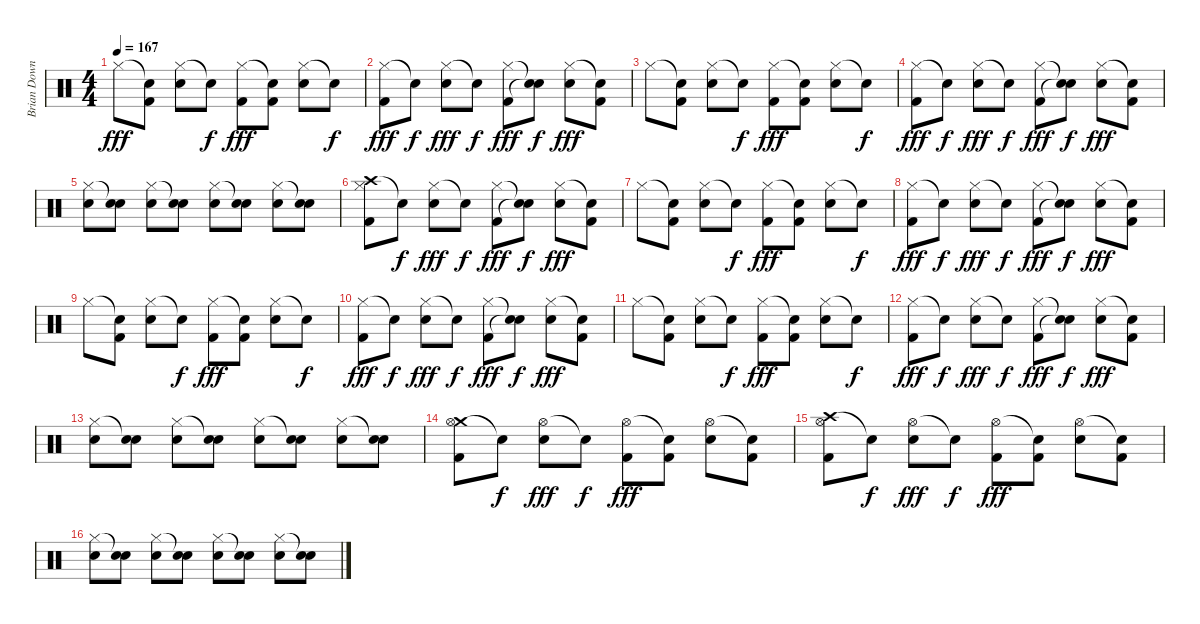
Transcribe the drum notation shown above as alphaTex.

\track ("Brian Downey" "Brian Down") {instrument percussion}
\staff {score}
\articulation defaults
\ts (4 4)
\tempo 167
\clef neutral
\ks c "Hi-Hat (closed)".8{dy fff}
("Snare (hit)"{t} "Kick (hit) 2").8 ("Hi-Hat (closed)" "Electric Snare (hit)").8 "Snare (hit)"{t}.8{dy f} ("Hi-Hat (closed)" "Kick (hit) 2").8{dy fff} ("Snare (hit)"{t} "Kick (hit) 2").8 ("Hi-Hat (closed)" "Electric Snare (hit)").8 "Snare (hit)"{t}.8{dy f} |
("Hi-Hat (closed)" "Kick (hit) 2").8{dy fff} "Snare (hit)"{t}.8{dy f} ("Hi-Hat (closed)" "Electric Snare (hit)").8{dy fff} "Snare (hit)"{t}.8{dy f} ("Hi-Hat (closed)" "Kick (hit) 2").8{dy fff} ("Snare (hit)"{t} "Electric Snare (hit)"{t}).8{dy f} ("Hi-Hat (closed)" "Electric Snare (hit)").8{dy fff} ("Snare (hit)"{t} "Kick (hit) 2").8 |
"Hi-Hat (closed)".8 ("Snare (hit)"{t} "Kick (hit) 2").8 ("Hi-Hat (closed)" "Electric Snare (hit)").8 "Snare (hit)"{t}.8{dy f} ("Hi-Hat (closed)" "Kick (hit) 2").8{dy fff} ("Snare (hit)"{t} "Kick (hit) 2").8 ("Hi-Hat (closed)" "Electric Snare (hit)").8 "Snare (hit)"{t}.8{dy f} |
("Hi-Hat (closed)" "Kick (hit) 2").8{dy fff} "Snare (hit)"{t}.8{dy f} ("Hi-Hat (closed)" "Electric Snare (hit)").8{dy fff} "Snare (hit)"{t}.8{dy f} ("Hi-Hat (closed)" "Kick (hit) 2").8{dy fff} ("Snare (hit)"{t} "Electric Snare (hit)"{t}).8{dy f} ("Hi-Hat (closed)" "Electric Snare (hit)").8{dy fff} ("Snare (hit)"{t} "Kick (hit) 2").8 |
("Hi-Hat (closed)" "Electric Snare (hit)").8 ("Snare (hit)"{t} "Electric Snare (hit)").8 ("Hi-Hat (closed)" "Electric Snare (hit)").8 ("Snare (hit)"{t} "Electric Snare (hit)").8 ("Hi-Hat (closed)" "Electric Snare (hit)").8 ("Snare (hit)"{t} "Electric Snare (hit)").8 ("Hi-Hat (closed)" "Electric Snare (hit)").8 ("Snare (hit)"{t} "Electric Snare (hit)").8 |
("Crash high (hit)" "Hi-Hat (closed)" "Kick (hit) 2").8 "Snare (hit)"{t}.8{dy f} ("Hi-Hat (closed)" "Electric Snare (hit)").8{dy fff} "Snare (hit)"{t}.8{dy f} ("Hi-Hat (closed)" "Kick (hit) 2").8{dy fff} ("Snare (hit)"{t} "Electric Snare (hit)"{t}).8{dy f} ("Hi-Hat (closed)" "Electric Snare (hit)").8{dy fff} ("Snare (hit)"{t} "Kick (hit) 2").8 |
"Hi-Hat (closed)".8 ("Snare (hit)"{t} "Kick (hit) 2").8 ("Hi-Hat (closed)" "Electric Snare (hit)").8 "Snare (hit)"{t}.8{dy f} ("Hi-Hat (closed)" "Kick (hit) 2").8{dy fff} ("Snare (hit)"{t} "Kick (hit) 2").8 ("Hi-Hat (closed)" "Electric Snare (hit)").8 "Snare (hit)"{t}.8{dy f} |
("Hi-Hat (closed)" "Kick (hit) 2").8{dy fff} "Snare (hit)"{t}.8{dy f} ("Hi-Hat (closed)" "Electric Snare (hit)").8{dy fff} "Snare (hit)"{t}.8{dy f} ("Hi-Hat (closed)" "Kick (hit) 2").8{dy fff} ("Snare (hit)"{t} "Electric Snare (hit)"{t}).8{dy f} ("Hi-Hat (closed)" "Electric Snare (hit)").8{dy fff} ("Snare (hit)"{t} "Kick (hit) 2").8 |
"Hi-Hat (closed)".8 ("Snare (hit)"{t} "Kick (hit) 2").8 ("Hi-Hat (closed)" "Electric Snare (hit)").8 "Snare (hit)"{t}.8{dy f} ("Hi-Hat (closed)" "Kick (hit) 2").8{dy fff} ("Snare (hit)"{t} "Kick (hit) 2").8 ("Hi-Hat (closed)" "Electric Snare (hit)").8 "Snare (hit)"{t}.8{dy f} |
("Hi-Hat (closed)" "Kick (hit) 2").8{dy fff} "Snare (hit)"{t}.8{dy f} ("Hi-Hat (closed)" "Electric Snare (hit)").8{dy fff} "Snare (hit)"{t}.8{dy f} ("Hi-Hat (closed)" "Kick (hit) 2").8{dy fff} ("Snare (hit)"{t} "Electric Snare (hit)"{t}).8{dy f} ("Hi-Hat (closed)" "Electric Snare (hit)").8{dy fff} ("Snare (hit)"{t} "Kick (hit) 2").8 |
"Hi-Hat (closed)".8 ("Snare (hit)"{t} "Kick (hit) 2").8 ("Hi-Hat (closed)" "Electric Snare (hit)").8 "Snare (hit)"{t}.8{dy f} ("Hi-Hat (closed)" "Kick (hit) 2").8{dy fff} ("Snare (hit)"{t} "Kick (hit) 2").8 ("Hi-Hat (closed)" "Electric Snare (hit)").8 "Snare (hit)"{t}.8{dy f} |
("Hi-Hat (closed)" "Kick (hit) 2").8{dy fff} "Snare (hit)"{t}.8{dy f} ("Hi-Hat (closed)" "Electric Snare (hit)").8{dy fff} "Snare (hit)"{t}.8{dy f} ("Hi-Hat (closed)" "Kick (hit) 2").8{dy fff} ("Snare (hit)"{t} "Electric Snare (hit)"{t}).8{dy f} ("Hi-Hat (closed)" "Electric Snare (hit)").8{dy fff} ("Snare (hit)"{t} "Kick (hit) 2").8 |
("Hi-Hat (closed)" "Electric Snare (hit)").8 ("Snare (hit)"{t} "Electric Snare (hit)").8 ("Hi-Hat (closed)" "Electric Snare (hit)").8 ("Snare (hit)"{t} "Electric Snare (hit)").8 ("Hi-Hat (closed)" "Electric Snare (hit)").8 ("Snare (hit)"{t} "Electric Snare (hit)").8 ("Hi-Hat (closed)" "Electric Snare (hit)").8 ("Snare (hit)"{t} "Electric Snare (hit)").8 |
("Crash medium (hit)" "Hi-Hat (open)" "Kick (hit) 2").8 "Snare (hit)"{t}.8{dy f} ("Hi-Hat (open)" "Electric Snare (hit)").8{dy fff} "Snare (hit)"{t}.8{dy f} ("Hi-Hat (open)" "Kick (hit) 2").8{dy fff} ("Snare (hit)"{t} "Kick (hit) 2").8 ("Hi-Hat (open)" "Electric Snare (hit)").8 ("Snare (hit)"{t} "Kick (hit) 2").8 |
("Crash high (hit)" "Hi-Hat (open)" "Kick (hit) 2").8 "Snare (hit)"{t}.8{dy f} ("Hi-Hat (open)" "Electric Snare (hit)").8{dy fff} "Snare (hit)"{t}.8{dy f} ("Hi-Hat (open)" "Kick (hit) 2").8{dy fff} ("Snare (hit)"{t} "Kick (hit) 2").8 ("Hi-Hat (open)" "Electric Snare (hit)").8 ("Snare (hit)"{t} "Kick (hit) 2").8 |
("Hi-Hat (closed)" "Electric Snare (hit)").8 ("Snare (hit)"{t} "Electric Snare (hit)").8 ("Hi-Hat (closed)" "Electric Snare (hit)").8 ("Snare (hit)"{t} "Electric Snare (hit)").8 ("Hi-Hat (closed)" "Electric Snare (hit)").8 ("Snare (hit)"{t} "Electric Snare (hit)").8 ("Hi-Hat (closed)" "Electric Snare (hit)").8 ("Snare (hit)"{t} "Electric Snare (hit)").8
